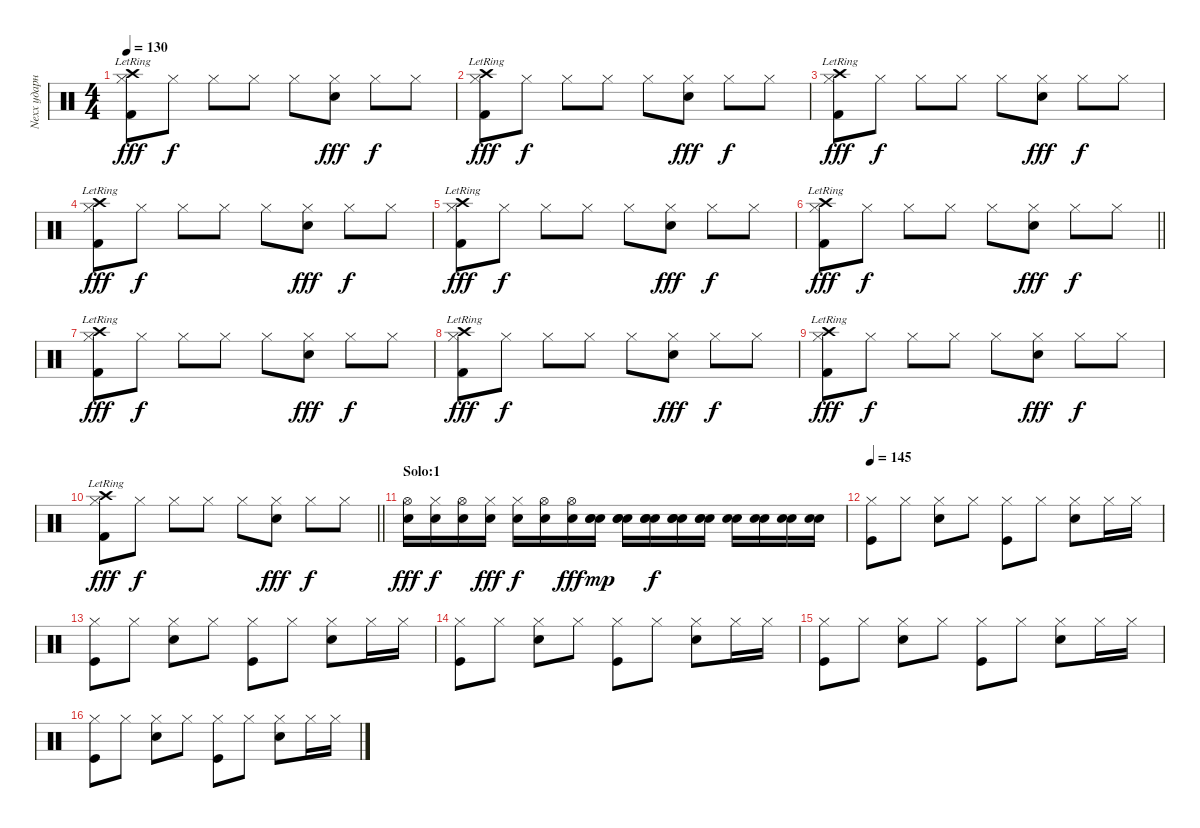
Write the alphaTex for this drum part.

\track ("Nexx ударные" "Nexx ударн") {instrument percussion}
\staff {score}
\articulation defaults
\ts (4 4)
\tempo 130
\clef neutral
\ks c
("Hi-Hat (closed)" "Kick (hit) 2" "Crash high (hit)"{lr}).8{dy fff} "Hi-Hat (closed)".8{dy f} "Hi-Hat (closed)".8 "Hi-Hat (closed)".8 "Hi-Hat (closed)".8 ("Hi-Hat (closed)" "Snare (hit) 2").8{dy fff} "Hi-Hat (closed)".8{dy f} "Hi-Hat (closed)".8 |
("Hi-Hat (closed)" "Kick (hit) 2" "Crash high (hit)"{lr}).8{dy fff} "Hi-Hat (closed)".8{dy f} "Hi-Hat (closed)".8 "Hi-Hat (closed)".8 "Hi-Hat (closed)".8 ("Hi-Hat (closed)" "Snare (hit) 2").8{dy fff} "Hi-Hat (closed)".8{dy f} "Hi-Hat (closed)".8 |
("Hi-Hat (closed)" "Kick (hit) 2" "Crash high (hit)"{lr}).8{dy fff} "Hi-Hat (closed)".8{dy f} "Hi-Hat (closed)".8 "Hi-Hat (closed)".8 "Hi-Hat (closed)".8 ("Hi-Hat (closed)" "Snare (hit) 2").8{dy fff} "Hi-Hat (closed)".8{dy f} "Hi-Hat (closed)".8 |
("Hi-Hat (closed)" "Kick (hit) 2" "Crash high (hit)"{lr}).8{dy fff} "Hi-Hat (closed)".8{dy f} "Hi-Hat (closed)".8 "Hi-Hat (closed)".8 "Hi-Hat (closed)".8 ("Hi-Hat (closed)" "Snare (hit) 2").8{dy fff} "Hi-Hat (closed)".8{dy f} "Hi-Hat (closed)".8 |
("Hi-Hat (closed)" "Kick (hit) 2" "Crash high (hit)"{lr}).8{dy fff} "Hi-Hat (closed)".8{dy f} "Hi-Hat (closed)".8 "Hi-Hat (closed)".8 "Hi-Hat (closed)".8 ("Hi-Hat (closed)" "Snare (hit) 2").8{dy fff} "Hi-Hat (closed)".8{dy f} "Hi-Hat (closed)".8 |
\barLineRight lightlight
("Hi-Hat (closed)" "Kick (hit) 2" "Crash high (hit)"{lr}).8{dy fff} "Hi-Hat (closed)".8{dy f} "Hi-Hat (closed)".8 "Hi-Hat (closed)".8 "Hi-Hat (closed)".8 ("Hi-Hat (closed)" "Snare (hit) 2").8{dy fff} "Hi-Hat (closed)".8{dy f} "Hi-Hat (closed)".8 |
("Hi-Hat (closed)" "Kick (hit) 2" "Crash high (hit)"{lr}).8{dy fff} "Hi-Hat (closed)".8{dy f} "Hi-Hat (closed)".8 "Hi-Hat (closed)".8 "Hi-Hat (closed)".8 ("Hi-Hat (closed)" "Snare (hit) 2").8{dy fff} "Hi-Hat (closed)".8{dy f} "Hi-Hat (closed)".8 |
("Hi-Hat (closed)" "Kick (hit) 2" "Crash high (hit)"{lr}).8{dy fff} "Hi-Hat (closed)".8{dy f} "Hi-Hat (closed)".8 "Hi-Hat (closed)".8 "Hi-Hat (closed)".8 ("Hi-Hat (closed)" "Snare (hit) 2").8{dy fff} "Hi-Hat (closed)".8{dy f} "Hi-Hat (closed)".8 |
("Hi-Hat (closed)" "Kick (hit) 2" "Crash high (hit)"{lr}).8{dy fff} "Hi-Hat (closed)".8{dy f} "Hi-Hat (closed)".8 "Hi-Hat (closed)".8 "Hi-Hat (closed)".8 ("Hi-Hat (closed)" "Snare (hit) 2").8{dy fff} "Hi-Hat (closed)".8{dy f} "Hi-Hat (closed)".8 |
\barLineRight lightlight
("Hi-Hat (closed)" "Kick (hit) 2" "Crash high (hit)"{lr}).8{dy fff} "Hi-Hat (closed)".8{dy f} "Hi-Hat (closed)".8 "Hi-Hat (closed)".8 "Hi-Hat (closed)".8 ("Hi-Hat (closed)" "Snare (hit) 2").8{dy fff} "Hi-Hat (closed)".8{dy f} "Hi-Hat (closed)".8 |
\section ("" "Solo:1")
("Hi-Hat (open)" "Snare (hit)"{x}).16{dy fff} ("Hi-Hat (closed)" "Snare (hit)"{x}).16{dy f} ("Hi-Hat (open)" "Snare (hit)"{x}).16 ("Hi-Hat (closed)" "Snare (hit)"{x}).16{dy fff} ("Hi-Hat (closed)" "Snare (hit)"{x}).16{dy f} ("Hi-Hat (open)" "Snare (hit)"{x}).16 ("Hi-Hat (open)" "Snare (hit)"{x}).16{dy fff} ("Electric Snare (hit)" "Electric Snare (hit)" "Snare (hit)"{x}).16{dy mp} ("Electric Snare (hit)" "Electric Snare (hit)" "Snare (hit)"{x}).16 ("Electric Snare (hit)" "Electric Snare (hit)" "Snare (hit)"{x}).16{dy f} ("Electric Snare (hit)" "Electric Snare (hit)" "Snare (hit)"{x}).16 ("Electric Snare (hit)" "Electric Snare (hit)" "Snare (hit)"{x}).16 ("Electric Snare (hit)" "Electric Snare (hit)").16 ("Electric Snare (hit)" "Electric Snare (hit)").16 ("Electric Snare (hit)" "Electric Snare (hit)").16 ("Electric Snare (hit)" "Electric Snare (hit)").16 |
\tempo 145
("Hi-Hat (closed)" "Kick (hit)").8 "Hi-Hat (closed)".8 ("Snare (hit) 2" "Hi-Hat (closed)").8 "Hi-Hat (closed)".8 ("Kick (hit)" "Hi-Hat (closed)").8 "Hi-Hat (closed)".8 ("Snare (hit) 2" "Hi-Hat (closed)").8 "Hi-Hat (closed)".16 "Hi-Hat (closed)".16 |
("Hi-Hat (closed)" "Kick (hit)").8 "Hi-Hat (closed)".8 ("Snare (hit) 2" "Hi-Hat (closed)").8 "Hi-Hat (closed)".8 ("Kick (hit)" "Hi-Hat (closed)").8 "Hi-Hat (closed)".8 ("Snare (hit) 2" "Hi-Hat (closed)").8 "Hi-Hat (closed)".16 "Hi-Hat (closed)".16 |
("Hi-Hat (closed)" "Kick (hit)").8 "Hi-Hat (closed)".8 ("Snare (hit) 2" "Hi-Hat (closed)").8 "Hi-Hat (closed)".8 ("Kick (hit)" "Hi-Hat (closed)").8 "Hi-Hat (closed)".8 ("Snare (hit) 2" "Hi-Hat (closed)").8 "Hi-Hat (closed)".16 "Hi-Hat (closed)".16 |
("Hi-Hat (closed)" "Kick (hit)").8 "Hi-Hat (closed)".8 ("Snare (hit) 2" "Hi-Hat (closed)").8 "Hi-Hat (closed)".8 ("Kick (hit)" "Hi-Hat (closed)").8 "Hi-Hat (closed)".8 ("Snare (hit) 2" "Hi-Hat (closed)").8 "Hi-Hat (closed)".16 "Hi-Hat (closed)".16 |
("Hi-Hat (closed)" "Kick (hit)").8 "Hi-Hat (closed)".8 ("Snare (hit) 2" "Hi-Hat (closed)").8 "Hi-Hat (closed)".8 ("Kick (hit)" "Hi-Hat (closed)").8 "Hi-Hat (closed)".8 ("Snare (hit) 2" "Hi-Hat (closed)").8 "Hi-Hat (closed)".16 "Hi-Hat (closed)".16
